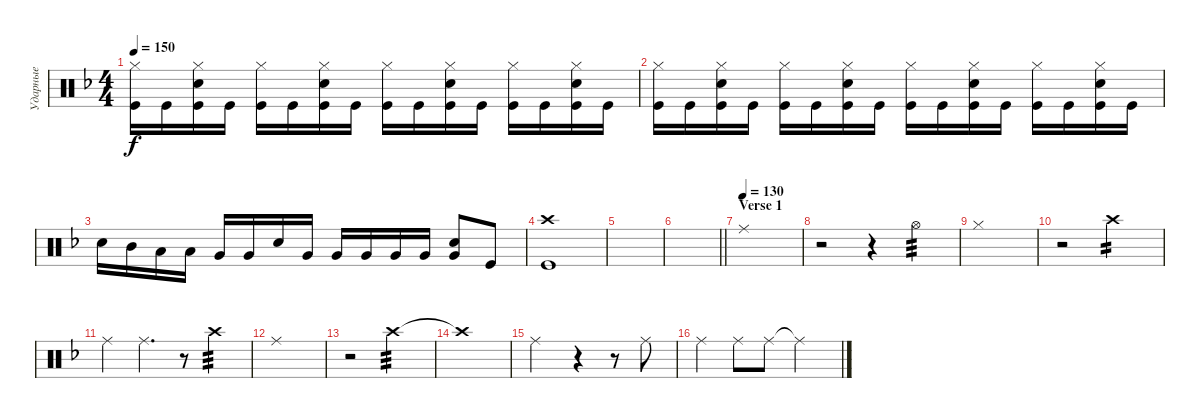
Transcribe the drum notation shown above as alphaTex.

\track ("Ударные" "Ударные") {instrument percussion}
\staff {score}
\articulation defaults
\ts (4 4)
\tempo 150
\clef neutral
\ks dminor
("Kick (hit)" "Hi-Hat (closed)").16{dy f} "Kick (hit)".16 ("Kick (hit)" "Snare (hit) 2" "Hi-Hat (closed)").16 "Kick (hit)".16 ("Kick (hit)" "Hi-Hat (closed)").16 "Kick (hit)".16 ("Kick (hit)" "Snare (hit) 2" "Hi-Hat (closed)").16 "Kick (hit)".16 ("Kick (hit)" "Hi-Hat (closed)").16 "Kick (hit)".16 ("Snare (hit) 2" "Kick (hit)" "Hi-Hat (closed)").16 "Kick (hit)".16 ("Kick (hit)" "Hi-Hat (closed)").16 "Kick (hit)".16 ("Kick (hit)" "Snare (hit) 2" "Hi-Hat (closed)").16 "Kick (hit)".16 |
("Kick (hit)" "Hi-Hat (closed)").16 "Kick (hit)".16 ("Kick (hit)" "Snare (hit) 2" "Hi-Hat (closed)").16 "Kick (hit)".16 ("Kick (hit)" "Hi-Hat (closed)").16 "Kick (hit)".16 ("Kick (hit)" "Snare (hit) 2" "Hi-Hat (closed)").16 "Kick (hit)".16 ("Kick (hit)" "Hi-Hat (closed)").16 "Kick (hit)".16 ("Snare (hit) 2" "Kick (hit)" "Hi-Hat (closed)").16 "Kick (hit)".16 ("Kick (hit)" "Hi-Hat (closed)").16 "Kick (hit)".16 ("Kick (hit)" "Snare (hit) 2" "Hi-Hat (closed)").16 "Kick (hit)".16 |
"Snare (hit) 2".16 "Mid Tom (hit)".16 "Low Tom (hit)".16 "Low Tom (hit)".16 "Very Low Tom (hit)".16 "Very Low Tom (hit)".16 "Snare (hit) 2".16 "Very Low Tom (hit)".16 "Very Low Tom (hit)".16 "Very Low Tom (hit)".16 "Very Low Tom (hit)".16 "Very Low Tom (hit)".16 ("Snare (hit) 2" "Very Low Tom (hit)").8{bd 240} "Kick (hit)".8 |
("Kick (hit)" "Crash high (hit)").1 |
|
\barLineRight lightlight
|
\section ("" "Verse 1")
\tempo (130)
"Ride (middle)".1 |
r.2 r.4{volume 0} "Hi-Hat (open)".4{tp 3 volume 14} |
"Hi-Hat (closed)".1 |
r.2{volume 0} "Crash high (hit)".2{tp 2 volume 14} |
"Ride (middle)".4 "Ride (middle)".4{d} r.8{volume 5} "Crash high (hit)".4{tp 3 volume 14} |
"Ride (middle)".1 |
r.2{volume 0} "Crash high (hit)".2{tp 3 volume 14} |
"Crash high (hit)"{t}.1 |
"Ride (middle)".2 r.4 r.8 "Ride (middle)".8 |
"Ride (middle)".4 "Ride (middle)".8 "Ride (middle)".8 "Ride (middle)"{t}.2
